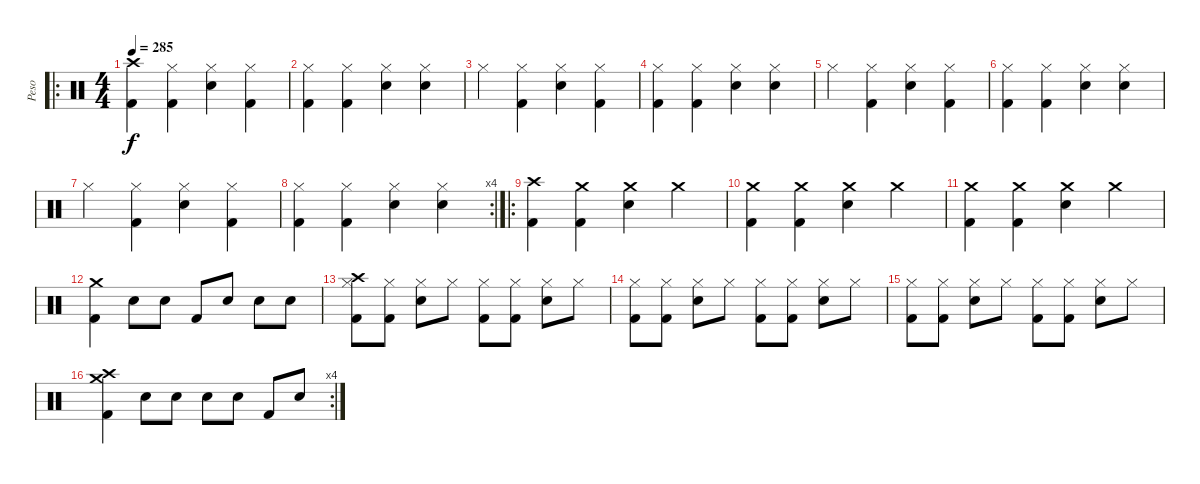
\track ("Peso" "Peso") {instrument percussion}
\staff {score}
\articulation defaults
\ro
\ts (4 4)
\tempo 285
\clef neutral
\ks c
("Crash high (hit)" "Kick (hit) 2").4{dy f} ("Hi-Hat (closed)" "Kick (hit) 2").4 ("Hi-Hat (closed)" "Snare (hit) 2").4 ("Hi-Hat (closed)" "Kick (hit) 2").4 |
("Hi-Hat (closed)" "Kick (hit) 2").4 ("Hi-Hat (closed)" "Kick (hit) 2").4 ("Hi-Hat (closed)" "Snare (hit) 2").4 ("Hi-Hat (closed)" "Snare (hit) 2").4 |
"Hi-Hat (closed)".4 ("Hi-Hat (closed)" "Kick (hit) 2").4 ("Hi-Hat (closed)" "Snare (hit) 2").4 ("Hi-Hat (closed)" "Kick (hit) 2").4 |
("Hi-Hat (closed)" "Kick (hit) 2").4 ("Hi-Hat (closed)" "Kick (hit) 2").4 ("Hi-Hat (closed)" "Snare (hit) 2").4 ("Hi-Hat (closed)" "Snare (hit) 2").4 |
"Hi-Hat (closed)".4 ("Hi-Hat (closed)" "Kick (hit) 2").4 ("Hi-Hat (closed)" "Snare (hit) 2").4 ("Hi-Hat (closed)" "Kick (hit) 2").4 |
("Hi-Hat (closed)" "Kick (hit) 2").4 ("Hi-Hat (closed)" "Kick (hit) 2").4 ("Hi-Hat (closed)" "Snare (hit) 2").4 ("Hi-Hat (closed)" "Snare (hit) 2").4 |
"Hi-Hat (closed)".4 ("Hi-Hat (closed)" "Kick (hit) 2").4 ("Hi-Hat (closed)" "Snare (hit) 2").4 ("Hi-Hat (closed)" "Kick (hit) 2").4 |
\rc 4
("Hi-Hat (closed)" "Kick (hit) 2").4 ("Hi-Hat (closed)" "Kick (hit) 2").4 ("Hi-Hat (closed)" "Snare (hit) 2").4 ("Hi-Hat (closed)" "Snare (hit) 2").4 |
\ro
("Crash high (hit)" "Kick (hit) 2").4 ("Crash medium (hit)" "Kick (hit) 2").4 ("Crash medium (hit)" "Snare (hit) 2").4 "Crash medium (hit)".4 |
("Crash medium (hit)" "Kick (hit) 2").4 ("Crash medium (hit)" "Kick (hit) 2").4 ("Crash medium (hit)" "Snare (hit) 2").4 "Crash medium (hit)".4 |
("Crash medium (hit)" "Kick (hit) 2").4 ("Crash medium (hit)" "Kick (hit) 2").4 ("Crash medium (hit)" "Snare (hit) 2").4 "Crash medium (hit)".4 |
("Crash medium (hit)" "Kick (hit) 2").4 "Snare (hit) 2".8 "Snare (hit) 2".8 "Kick (hit) 2".8 "Snare (hit) 2".8 "Snare (hit) 2".8 "Snare (hit) 2".8 |
("Crash high (hit)" "Hi-Hat (closed)" "Kick (hit) 2").8 ("Hi-Hat (closed)" "Kick (hit) 2").8 ("Hi-Hat (closed)" "Snare (hit) 2").8 "Hi-Hat (closed)".8 ("Hi-Hat (closed)" "Kick (hit) 2").8 ("Hi-Hat (closed)" "Kick (hit) 2").8 ("Hi-Hat (closed)" "Snare (hit) 2").8 "Hi-Hat (closed)".8 |
("Hi-Hat (closed)" "Kick (hit) 2").8 ("Hi-Hat (closed)" "Kick (hit) 2").8 ("Hi-Hat (closed)" "Snare (hit) 2").8 "Hi-Hat (closed)".8 ("Hi-Hat (closed)" "Kick (hit) 2").8 ("Hi-Hat (closed)" "Kick (hit) 2").8 ("Hi-Hat (closed)" "Snare (hit) 2").8 "Hi-Hat (closed)".8 |
("Hi-Hat (closed)" "Kick (hit) 2").8 ("Hi-Hat (closed)" "Kick (hit) 2").8 ("Hi-Hat (closed)" "Snare (hit) 2").8 "Hi-Hat (closed)".8 ("Hi-Hat (closed)" "Kick (hit) 2").8 ("Hi-Hat (closed)" "Kick (hit) 2").8 ("Hi-Hat (closed)" "Snare (hit) 2").8 "Hi-Hat (closed)".8 |
\rc 4
("Crash medium (hit)" "Crash high (hit)" "Kick (hit) 2").4 "Snare (hit) 2".8 "Snare (hit) 2".8 "Snare (hit) 2".8 "Snare (hit) 2".8 "Kick (hit) 2".8 "Snare (hit) 2".8
